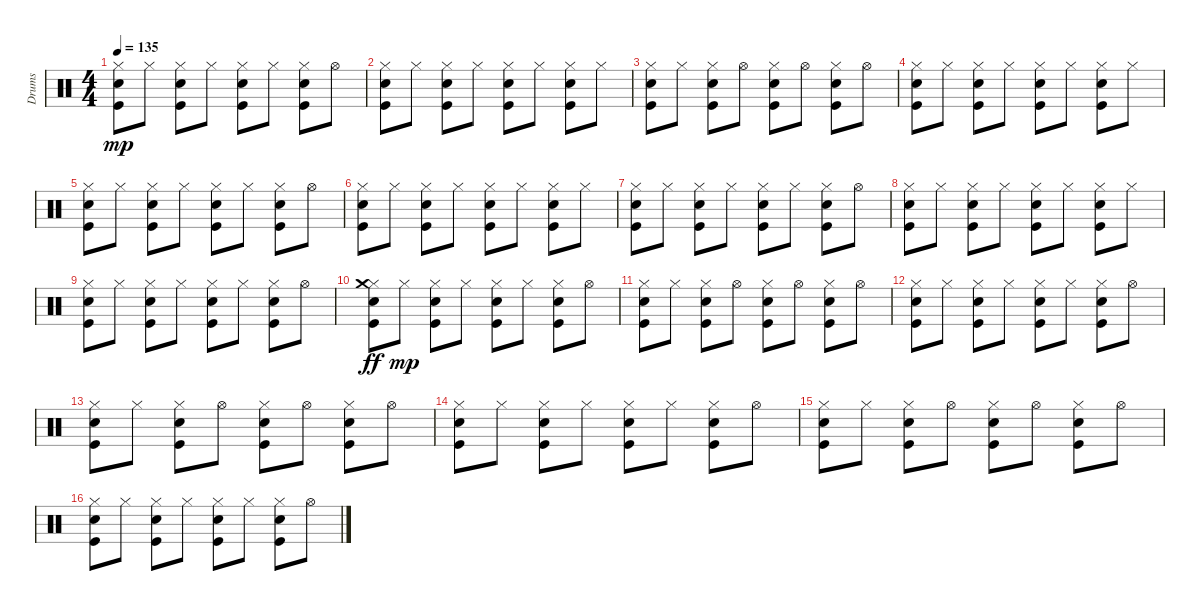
\track ("Drums   " "Drums   ") {instrument percussion}
\staff {score}
\articulation defaults
\ts (4 4)
\tempo 135
\clef neutral
\ks c
("Snare (hit) 2" "Hi-Hat (closed)" "Kick (hit)").8{dy mp} "Hi-Hat (closed)".8 ("Snare (hit) 2" "Hi-Hat (closed)" "Kick (hit)").8 "Hi-Hat (closed)".8 ("Snare (hit) 2" "Hi-Hat (closed)" "Kick (hit)").8 "Hi-Hat (closed)".8 ("Snare (hit) 2" "Hi-Hat (closed)" "Kick (hit)").8 "Hi-Hat (open)".8 |
("Snare (hit) 2" "Hi-Hat (closed)" "Kick (hit)").8 "Hi-Hat (closed)".8 ("Snare (hit) 2" "Hi-Hat (closed)" "Kick (hit)").8 "Hi-Hat (closed)".8 ("Snare (hit) 2" "Hi-Hat (closed)" "Kick (hit)").8 "Hi-Hat (closed)".8 ("Snare (hit) 2" "Hi-Hat (closed)" "Kick (hit)").8 "Hi-Hat (closed)".8 |
("Snare (hit) 2" "Hi-Hat (closed)" "Kick (hit)").8 "Hi-Hat (closed)".8 ("Snare (hit) 2" "Hi-Hat (closed)" "Kick (hit)").8 "Hi-Hat (open)".8 ("Snare (hit) 2" "Hi-Hat (closed)" "Kick (hit)").8 "Hi-Hat (open)".8 ("Snare (hit) 2" "Hi-Hat (closed)" "Kick (hit)").8 "Hi-Hat (open)".8 |
("Snare (hit) 2" "Hi-Hat (closed)" "Kick (hit)").8 "Hi-Hat (closed)".8 ("Snare (hit) 2" "Hi-Hat (closed)" "Kick (hit)").8 "Hi-Hat (closed)".8 ("Snare (hit) 2" "Hi-Hat (closed)" "Kick (hit)").8 "Hi-Hat (closed)".8 ("Snare (hit) 2" "Hi-Hat (closed)" "Kick (hit)").8 "Hi-Hat (closed)".8 |
("Snare (hit) 2" "Hi-Hat (closed)" "Kick (hit)").8 "Hi-Hat (closed)".8 ("Snare (hit) 2" "Hi-Hat (closed)" "Kick (hit)").8 "Hi-Hat (closed)".8 ("Snare (hit) 2" "Hi-Hat (closed)" "Kick (hit)").8 "Hi-Hat (closed)".8 ("Snare (hit) 2" "Hi-Hat (closed)" "Kick (hit)").8 "Hi-Hat (open)".8 |
("Snare (hit) 2" "Hi-Hat (closed)" "Kick (hit)").8 "Hi-Hat (closed)".8 ("Snare (hit) 2" "Hi-Hat (closed)" "Kick (hit)").8 "Hi-Hat (closed)".8 ("Snare (hit) 2" "Hi-Hat (closed)" "Kick (hit)").8 "Hi-Hat (closed)".8 ("Snare (hit) 2" "Hi-Hat (closed)" "Kick (hit)").8 "Hi-Hat (closed)".8 |
("Snare (hit) 2" "Hi-Hat (closed)" "Kick (hit)").8 "Hi-Hat (closed)".8 ("Snare (hit) 2" "Hi-Hat (closed)" "Kick (hit)").8 "Hi-Hat (closed)".8 ("Snare (hit) 2" "Hi-Hat (closed)" "Kick (hit)").8 "Hi-Hat (closed)".8 ("Snare (hit) 2" "Hi-Hat (closed)" "Kick (hit)").8 "Hi-Hat (open)".8 |
("Snare (hit) 2" "Hi-Hat (closed)" "Kick (hit)").8 "Hi-Hat (closed)".8 ("Snare (hit) 2" "Hi-Hat (closed)" "Kick (hit)").8 "Hi-Hat (closed)".8 ("Snare (hit) 2" "Hi-Hat (closed)" "Kick (hit)").8 "Hi-Hat (closed)".8 ("Snare (hit) 2" "Hi-Hat (closed)" "Kick (hit)").8 "Hi-Hat (closed)".8 |
("Snare (hit) 2" "Hi-Hat (closed)" "Kick (hit)").8 "Hi-Hat (closed)".8 ("Snare (hit) 2" "Hi-Hat (closed)" "Kick (hit)").8 "Hi-Hat (closed)".8 ("Snare (hit) 2" "Hi-Hat (closed)" "Kick (hit)").8 "Hi-Hat (closed)".8 ("Snare (hit) 2" "Hi-Hat (closed)" "Kick (hit)").8 "Hi-Hat (open)".8 |
("Snare (hit) 2" "Hi-Hat (closed)" "Kick (hit)" "Crash medium (hit)").8{dy ff} "Hi-Hat (closed)".8{dy mp} ("Snare (hit) 2" "Hi-Hat (closed)" "Kick (hit)").8 "Hi-Hat (closed)".8 ("Snare (hit) 2" "Hi-Hat (closed)" "Kick (hit)").8 "Hi-Hat (closed)".8 ("Snare (hit) 2" "Hi-Hat (closed)" "Kick (hit)").8 "Hi-Hat (open)".8 |
("Snare (hit) 2" "Hi-Hat (closed)" "Kick (hit)").8 "Hi-Hat (closed)".8 ("Snare (hit) 2" "Hi-Hat (closed)" "Kick (hit)").8 "Hi-Hat (open)".8 ("Snare (hit) 2" "Hi-Hat (closed)" "Kick (hit)").8 "Hi-Hat (open)".8 ("Snare (hit) 2" "Hi-Hat (closed)" "Kick (hit)").8 "Hi-Hat (open)".8 |
("Snare (hit) 2" "Hi-Hat (closed)" "Kick (hit)").8 "Hi-Hat (closed)".8 ("Snare (hit) 2" "Hi-Hat (closed)" "Kick (hit)").8 "Hi-Hat (closed)".8 ("Snare (hit) 2" "Hi-Hat (closed)" "Kick (hit)").8 "Hi-Hat (closed)".8 ("Snare (hit) 2" "Hi-Hat (closed)" "Kick (hit)").8 "Hi-Hat (open)".8 |
("Snare (hit) 2" "Hi-Hat (closed)" "Kick (hit)").8 "Hi-Hat (closed)".8 ("Snare (hit) 2" "Hi-Hat (closed)" "Kick (hit)").8 "Hi-Hat (open)".8 ("Snare (hit) 2" "Hi-Hat (closed)" "Kick (hit)").8 "Hi-Hat (open)".8 ("Snare (hit) 2" "Hi-Hat (closed)" "Kick (hit)").8 "Hi-Hat (open)".8 |
("Snare (hit) 2" "Hi-Hat (closed)" "Kick (hit)").8 "Hi-Hat (closed)".8 ("Snare (hit) 2" "Hi-Hat (closed)" "Kick (hit)").8 "Hi-Hat (closed)".8 ("Snare (hit) 2" "Hi-Hat (closed)" "Kick (hit)").8 "Hi-Hat (closed)".8 ("Snare (hit) 2" "Hi-Hat (closed)" "Kick (hit)").8 "Hi-Hat (open)".8 |
("Snare (hit) 2" "Hi-Hat (closed)" "Kick (hit)").8 "Hi-Hat (closed)".8 ("Snare (hit) 2" "Hi-Hat (closed)" "Kick (hit)").8 "Hi-Hat (open)".8 ("Snare (hit) 2" "Hi-Hat (closed)" "Kick (hit)").8 "Hi-Hat (open)".8 ("Snare (hit) 2" "Hi-Hat (closed)" "Kick (hit)").8 "Hi-Hat (open)".8 |
("Snare (hit) 2" "Hi-Hat (closed)" "Kick (hit)").8 "Hi-Hat (closed)".8 ("Snare (hit) 2" "Hi-Hat (closed)" "Kick (hit)").8 "Hi-Hat (closed)".8 ("Snare (hit) 2" "Hi-Hat (closed)" "Kick (hit)").8 "Hi-Hat (closed)".8 ("Snare (hit) 2" "Hi-Hat (closed)" "Kick (hit)").8 "Hi-Hat (open)".8
